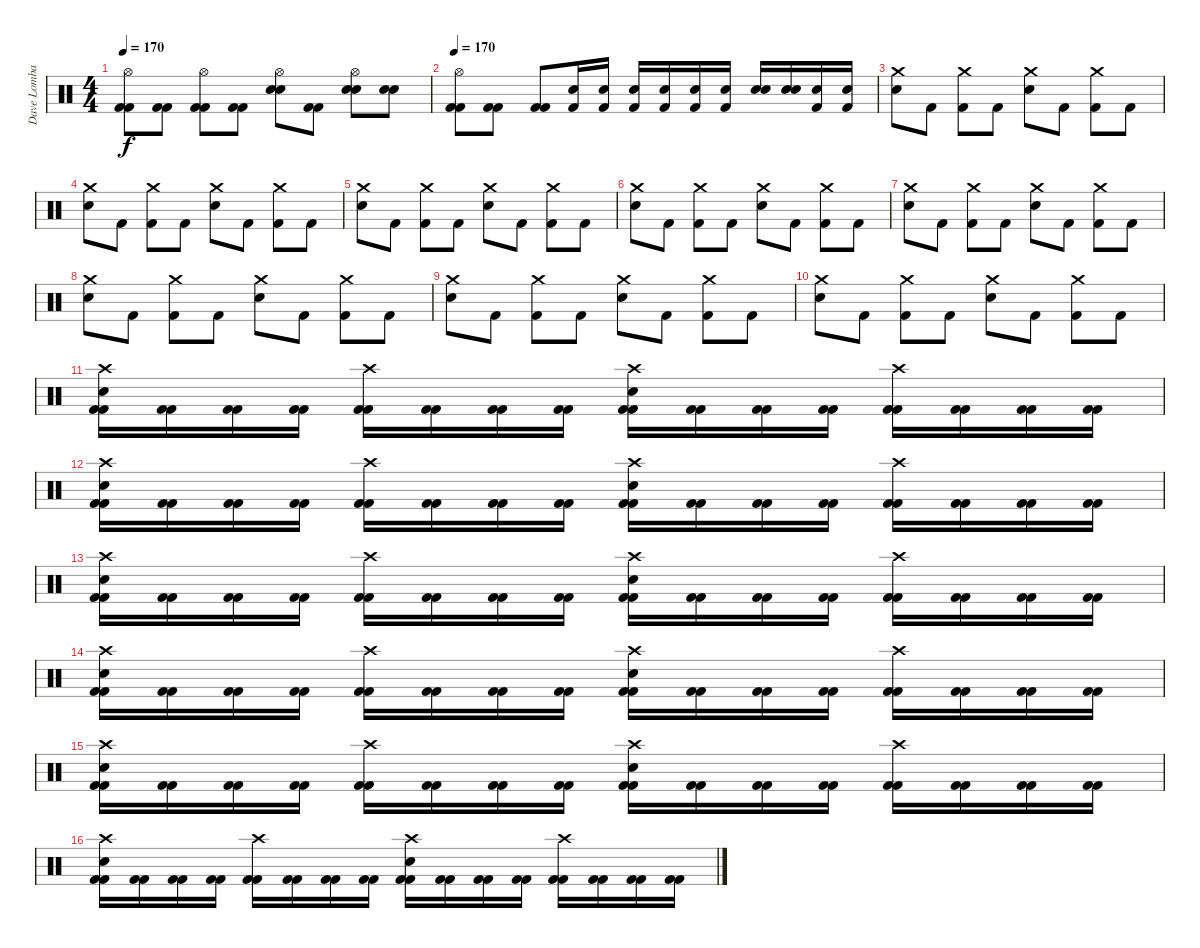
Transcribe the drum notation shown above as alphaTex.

\track ("Dave Lombardo" "Dave Lomba") {instrument percussion}
\staff {score}
\articulation defaults
\ts (4 4)
\tempo 170
\clef neutral
\ks c
("Hi-Hat (open)" "Kick (hit) 2" "Kick (hit) 2").8{dy f} ("Kick (hit) 2" "Kick (hit) 2").8 ("Hi-Hat (open)" "Kick (hit) 2" "Kick (hit) 2").8 ("Kick (hit) 2" "Kick (hit) 2").8 ("Hi-Hat (open)" "Snare (hit) 2" "Snare (hit) 2").8 ("Kick (hit) 2" "Kick (hit) 2").8 ("Hi-Hat (open)" "Snare (hit) 2" "Snare (hit) 2").8 ("Snare (hit) 2" "Snare (hit) 2").8 |
\tempo 170
("Hi-Hat (open)" "Kick (hit) 2" "Kick (hit) 2").8 ("Kick (hit) 2" "Kick (hit) 2").8 ("Kick (hit) 2" "Kick (hit) 2").8 ("Electric Snare (hit)" "Kick (hit) 2").16 ("Electric Snare (hit)" "Kick (hit) 2").16 ("Electric Snare (hit)" "Kick (hit) 2").16 ("Electric Snare (hit)" "Kick (hit) 2").16 ("Electric Snare (hit)" "Kick (hit) 2").16 ("Electric Snare (hit)" "Kick (hit) 2").16 ("Snare (hit) 2" "Snare (hit) 2").16 ("Snare (hit) 2" "Snare (hit) 2").16 ("Electric Snare (hit)" "Kick (hit) 2").16 ("Electric Snare (hit)" "Kick (hit) 2").16 |
("Crash medium (hit)" "Electric Snare (hit)").8 "Kick (hit) 2".8 ("Crash medium (hit)" "Kick (hit) 2").8 "Kick (hit) 2".8 ("Crash medium (hit)" "Electric Snare (hit)").8 "Kick (hit) 2".8 ("Crash medium (hit)" "Kick (hit) 2").8 "Kick (hit) 2".8 |
("Crash medium (hit)" "Electric Snare (hit)").8 "Kick (hit) 2".8 ("Crash medium (hit)" "Kick (hit) 2").8 "Kick (hit) 2".8 ("Crash medium (hit)" "Electric Snare (hit)").8 "Kick (hit) 2".8 ("Crash medium (hit)" "Kick (hit) 2").8 "Kick (hit) 2".8 |
("Crash medium (hit)" "Electric Snare (hit)").8 "Kick (hit) 2".8 ("Crash medium (hit)" "Kick (hit) 2").8 "Kick (hit) 2".8 ("Crash medium (hit)" "Electric Snare (hit)").8 "Kick (hit) 2".8 ("Crash medium (hit)" "Kick (hit) 2").8 "Kick (hit) 2".8 |
("Crash medium (hit)" "Electric Snare (hit)").8 "Kick (hit) 2".8 ("Crash medium (hit)" "Kick (hit) 2").8 "Kick (hit) 2".8 ("Crash medium (hit)" "Electric Snare (hit)").8 "Kick (hit) 2".8 ("Crash medium (hit)" "Kick (hit) 2").8 "Kick (hit) 2".8 |
("Crash medium (hit)" "Electric Snare (hit)").8 "Kick (hit) 2".8 ("Crash medium (hit)" "Kick (hit) 2").8 "Kick (hit) 2".8 ("Crash medium (hit)" "Electric Snare (hit)").8 "Kick (hit) 2".8 ("Crash medium (hit)" "Kick (hit) 2").8 "Kick (hit) 2".8 |
("Crash medium (hit)" "Electric Snare (hit)").8 "Kick (hit) 2".8 ("Crash medium (hit)" "Kick (hit) 2").8 "Kick (hit) 2".8 ("Crash medium (hit)" "Electric Snare (hit)").8 "Kick (hit) 2".8 ("Crash medium (hit)" "Kick (hit) 2").8 "Kick (hit) 2".8 |
("Crash medium (hit)" "Electric Snare (hit)").8 "Kick (hit) 2".8 ("Crash medium (hit)" "Kick (hit) 2").8 "Kick (hit) 2".8 ("Crash medium (hit)" "Electric Snare (hit)").8 "Kick (hit) 2".8 ("Crash medium (hit)" "Kick (hit) 2").8 "Kick (hit) 2".8 |
("Crash medium (hit)" "Electric Snare (hit)").8 "Kick (hit) 2".8 ("Crash medium (hit)" "Kick (hit) 2").8 "Kick (hit) 2".8 ("Crash medium (hit)" "Electric Snare (hit)").8 "Kick (hit) 2".8 ("Crash medium (hit)" "Kick (hit) 2").8 "Kick (hit) 2".8 |
("Crash high (hit)" "Electric Snare (hit)" "Kick (hit) 2" "Kick (hit) 2").16 ("Kick (hit) 2" "Kick (hit) 2").16 ("Kick (hit) 2" "Kick (hit) 2").16 ("Kick (hit) 2" "Kick (hit) 2").16 ("Crash high (hit)" "Kick (hit) 2" "Kick (hit) 2").16 ("Kick (hit) 2" "Kick (hit) 2").16 ("Kick (hit) 2" "Kick (hit) 2").16 ("Kick (hit) 2" "Kick (hit) 2").16 ("Crash high (hit)" "Electric Snare (hit)" "Kick (hit) 2" "Kick (hit) 2").16 ("Kick (hit) 2" "Kick (hit) 2").16 ("Kick (hit) 2" "Kick (hit) 2").16 ("Kick (hit) 2" "Kick (hit) 2").16 ("Crash high (hit)" "Kick (hit) 2" "Kick (hit) 2").16 ("Kick (hit) 2" "Kick (hit) 2").16 ("Kick (hit) 2" "Kick (hit) 2").16 ("Kick (hit) 2" "Kick (hit) 2").16 |
("Crash high (hit)" "Electric Snare (hit)" "Kick (hit) 2" "Kick (hit) 2").16 ("Kick (hit) 2" "Kick (hit) 2").16 ("Kick (hit) 2" "Kick (hit) 2").16 ("Kick (hit) 2" "Kick (hit) 2").16 ("Crash high (hit)" "Kick (hit) 2" "Kick (hit) 2").16 ("Kick (hit) 2" "Kick (hit) 2").16 ("Kick (hit) 2" "Kick (hit) 2").16 ("Kick (hit) 2" "Kick (hit) 2").16 ("Crash high (hit)" "Electric Snare (hit)" "Kick (hit) 2" "Kick (hit) 2").16 ("Kick (hit) 2" "Kick (hit) 2").16 ("Kick (hit) 2" "Kick (hit) 2").16 ("Kick (hit) 2" "Kick (hit) 2").16 ("Crash high (hit)" "Kick (hit) 2" "Kick (hit) 2").16 ("Kick (hit) 2" "Kick (hit) 2").16 ("Kick (hit) 2" "Kick (hit) 2").16 ("Kick (hit) 2" "Kick (hit) 2").16 |
("Crash high (hit)" "Electric Snare (hit)" "Kick (hit) 2" "Kick (hit) 2").16 ("Kick (hit) 2" "Kick (hit) 2").16 ("Kick (hit) 2" "Kick (hit) 2").16 ("Kick (hit) 2" "Kick (hit) 2").16 ("Crash high (hit)" "Kick (hit) 2" "Kick (hit) 2").16 ("Kick (hit) 2" "Kick (hit) 2").16 ("Kick (hit) 2" "Kick (hit) 2").16 ("Kick (hit) 2" "Kick (hit) 2").16 ("Crash high (hit)" "Electric Snare (hit)" "Kick (hit) 2" "Kick (hit) 2").16 ("Kick (hit) 2" "Kick (hit) 2").16 ("Kick (hit) 2" "Kick (hit) 2").16 ("Kick (hit) 2" "Kick (hit) 2").16 ("Crash high (hit)" "Kick (hit) 2" "Kick (hit) 2").16 ("Kick (hit) 2" "Kick (hit) 2").16 ("Kick (hit) 2" "Kick (hit) 2").16 ("Kick (hit) 2" "Kick (hit) 2").16 |
("Crash high (hit)" "Electric Snare (hit)" "Kick (hit) 2" "Kick (hit) 2").16 ("Kick (hit) 2" "Kick (hit) 2").16 ("Kick (hit) 2" "Kick (hit) 2").16 ("Kick (hit) 2" "Kick (hit) 2").16 ("Crash high (hit)" "Kick (hit) 2" "Kick (hit) 2").16 ("Kick (hit) 2" "Kick (hit) 2").16 ("Kick (hit) 2" "Kick (hit) 2").16 ("Kick (hit) 2" "Kick (hit) 2").16 ("Crash high (hit)" "Electric Snare (hit)" "Kick (hit) 2" "Kick (hit) 2").16 ("Kick (hit) 2" "Kick (hit) 2").16 ("Kick (hit) 2" "Kick (hit) 2").16 ("Kick (hit) 2" "Kick (hit) 2").16 ("Crash high (hit)" "Kick (hit) 2" "Kick (hit) 2").16 ("Kick (hit) 2" "Kick (hit) 2").16 ("Kick (hit) 2" "Kick (hit) 2").16 ("Kick (hit) 2" "Kick (hit) 2").16 |
("Crash high (hit)" "Electric Snare (hit)" "Kick (hit) 2" "Kick (hit) 2").16 ("Kick (hit) 2" "Kick (hit) 2").16 ("Kick (hit) 2" "Kick (hit) 2").16 ("Kick (hit) 2" "Kick (hit) 2").16 ("Crash high (hit)" "Kick (hit) 2" "Kick (hit) 2").16 ("Kick (hit) 2" "Kick (hit) 2").16 ("Kick (hit) 2" "Kick (hit) 2").16 ("Kick (hit) 2" "Kick (hit) 2").16 ("Crash high (hit)" "Electric Snare (hit)" "Kick (hit) 2" "Kick (hit) 2").16 ("Kick (hit) 2" "Kick (hit) 2").16 ("Kick (hit) 2" "Kick (hit) 2").16 ("Kick (hit) 2" "Kick (hit) 2").16 ("Crash high (hit)" "Kick (hit) 2" "Kick (hit) 2").16 ("Kick (hit) 2" "Kick (hit) 2").16 ("Kick (hit) 2" "Kick (hit) 2").16 ("Kick (hit) 2" "Kick (hit) 2").16 |
("Crash high (hit)" "Electric Snare (hit)" "Kick (hit) 2" "Kick (hit) 2").16 ("Kick (hit) 2" "Kick (hit) 2").16 ("Kick (hit) 2" "Kick (hit) 2").16 ("Kick (hit) 2" "Kick (hit) 2").16 ("Crash high (hit)" "Kick (hit) 2" "Kick (hit) 2").16 ("Kick (hit) 2" "Kick (hit) 2").16 ("Kick (hit) 2" "Kick (hit) 2").16 ("Kick (hit) 2" "Kick (hit) 2").16 ("Crash high (hit)" "Electric Snare (hit)" "Kick (hit) 2" "Kick (hit) 2").16 ("Kick (hit) 2" "Kick (hit) 2").16 ("Kick (hit) 2" "Kick (hit) 2").16 ("Kick (hit) 2" "Kick (hit) 2").16 ("Crash high (hit)" "Kick (hit) 2" "Kick (hit) 2").16 ("Kick (hit) 2" "Kick (hit) 2").16 ("Kick (hit) 2" "Kick (hit) 2").16 ("Kick (hit) 2" "Kick (hit) 2").16
